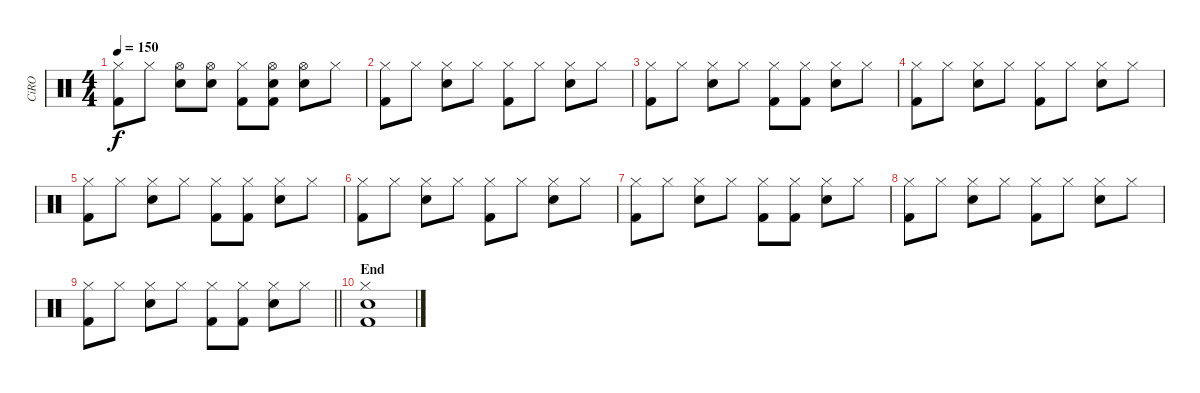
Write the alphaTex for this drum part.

\track ("CiRO" "CiRO") {instrument percussion}
\staff {score}
\articulation defaults
\ts (4 4)
\tempo 150
\clef neutral
\ks c
("Hi-Hat (closed)" "Kick (hit) 2").8{dy f} "Hi-Hat (closed)".8 ("Hi-Hat (open)" "Electric Snare (hit)").8 ("Hi-Hat (open)" "Electric Snare (hit)").8 ("Hi-Hat (closed)" "Kick (hit) 2").8 ("Hi-Hat (open)" "Electric Snare (hit)" "Kick (hit) 2").8 ("Hi-Hat (open)" "Electric Snare (hit)").8 "Hi-Hat (closed)".8 |
("Hi-Hat (closed)" "Kick (hit) 2").8 "Hi-Hat (closed)".8 ("Hi-Hat (closed)" "Electric Snare (hit)").8 "Hi-Hat (closed)".8 ("Hi-Hat (closed)" "Kick (hit) 2").8 "Hi-Hat (closed)".8 ("Hi-Hat (closed)" "Electric Snare (hit)").8 "Hi-Hat (closed)".8 |
("Hi-Hat (closed)" "Kick (hit) 2").8 "Hi-Hat (closed)".8 ("Hi-Hat (closed)" "Electric Snare (hit)").8 "Hi-Hat (closed)".8 ("Hi-Hat (closed)" "Kick (hit) 2").8 ("Hi-Hat (closed)" "Kick (hit) 2").8 ("Hi-Hat (closed)" "Electric Snare (hit)").8 "Hi-Hat (closed)".8 |
("Hi-Hat (closed)" "Kick (hit) 2").8 "Hi-Hat (closed)".8 ("Hi-Hat (closed)" "Electric Snare (hit)").8 "Hi-Hat (closed)".8 ("Hi-Hat (closed)" "Kick (hit) 2").8 "Hi-Hat (closed)".8 ("Hi-Hat (closed)" "Electric Snare (hit)").8 "Hi-Hat (closed)".8 |
("Hi-Hat (closed)" "Kick (hit) 2").8 "Hi-Hat (closed)".8 ("Hi-Hat (closed)" "Electric Snare (hit)").8 "Hi-Hat (closed)".8 ("Hi-Hat (closed)" "Kick (hit) 2").8 ("Hi-Hat (closed)" "Kick (hit) 2").8 ("Hi-Hat (closed)" "Electric Snare (hit)").8 "Hi-Hat (closed)".8 |
("Hi-Hat (closed)" "Kick (hit) 2").8 "Hi-Hat (closed)".8 ("Hi-Hat (closed)" "Electric Snare (hit)").8 "Hi-Hat (closed)".8 ("Hi-Hat (closed)" "Kick (hit) 2").8 "Hi-Hat (closed)".8 ("Hi-Hat (closed)" "Electric Snare (hit)").8 "Hi-Hat (closed)".8 |
("Hi-Hat (closed)" "Kick (hit) 2").8 "Hi-Hat (closed)".8 ("Hi-Hat (closed)" "Electric Snare (hit)").8 "Hi-Hat (closed)".8 ("Hi-Hat (closed)" "Kick (hit) 2").8 ("Hi-Hat (closed)" "Kick (hit) 2").8 ("Hi-Hat (closed)" "Electric Snare (hit)").8 "Hi-Hat (closed)".8 |
("Hi-Hat (closed)" "Kick (hit) 2").8 "Hi-Hat (closed)".8 ("Hi-Hat (closed)" "Electric Snare (hit)").8 "Hi-Hat (closed)".8 ("Hi-Hat (closed)" "Kick (hit) 2").8 "Hi-Hat (closed)".8 ("Hi-Hat (closed)" "Electric Snare (hit)").8 "Hi-Hat (closed)".8 |
\barLineRight lightlight
("Hi-Hat (closed)" "Kick (hit) 2").8 "Hi-Hat (closed)".8 ("Hi-Hat (closed)" "Electric Snare (hit)").8 "Hi-Hat (closed)".8 ("Hi-Hat (closed)" "Kick (hit) 2").8 ("Hi-Hat (closed)" "Kick (hit) 2").8 ("Hi-Hat (closed)" "Electric Snare (hit)").8 "Hi-Hat (closed)".8 |
\section ("" "End")
("Hi-Hat (closed)" "Electric Snare (hit)" "Kick (hit) 2").1
